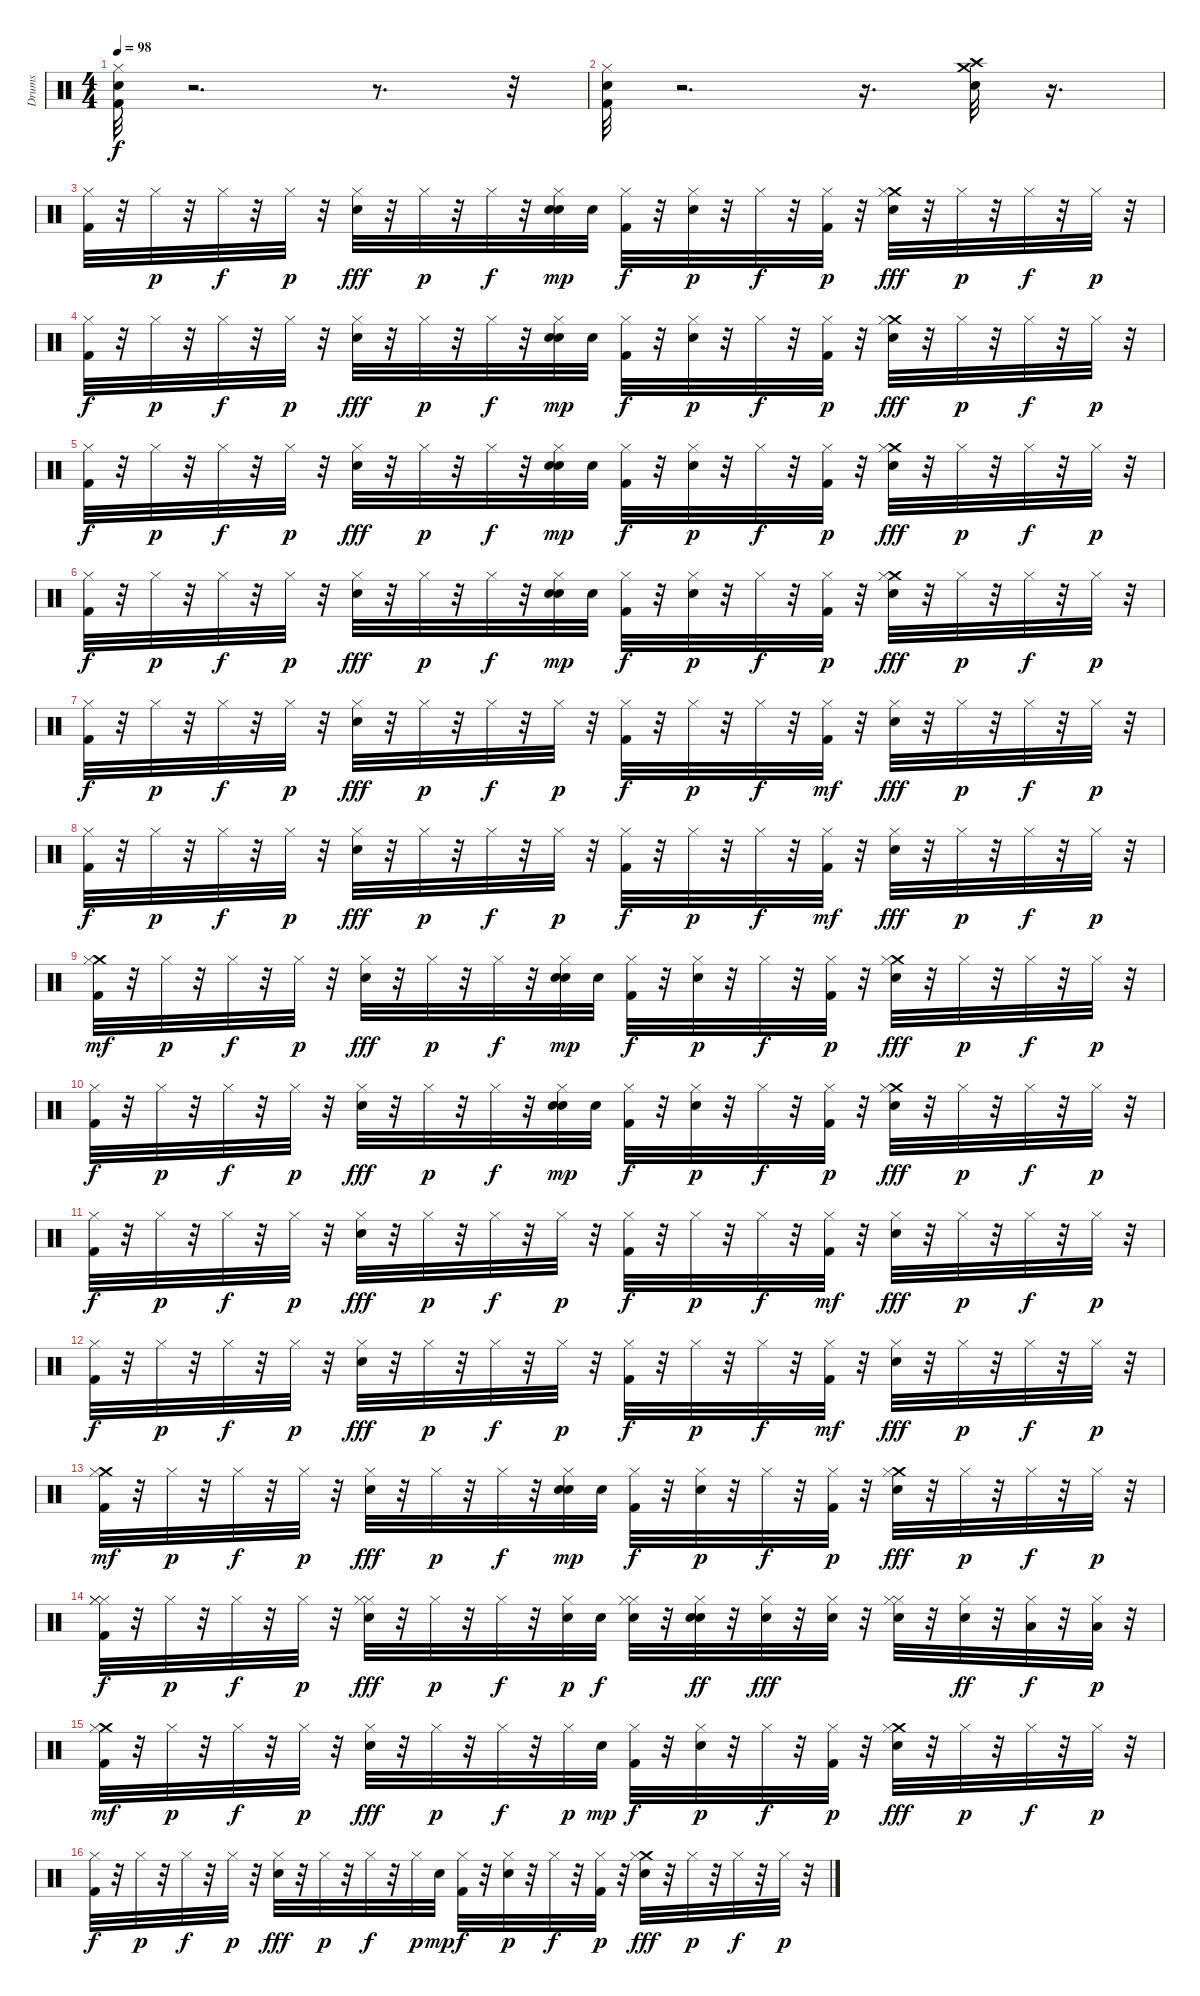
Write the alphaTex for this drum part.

\track ("Drums" "Drums") {instrument percussion}
\staff {score}
\articulation defaults
\ts (4 4)
\tempo 98
\clef neutral
\ks c
("Kick (hit) 2" "Electric Snare (hit)" "Hi-Hat (closed)").32{dy f} r.2{d} r.8{d} r.32 |
("Kick (hit) 2" "Electric Snare (hit)" "Hi-Hat (closed)").32 r.2{d} r.16{d} ("Crash medium (hit)" "Electric Snare (hit)" "Crash high (hit)").32 r.16{d} |
("Hi-Hat (closed)" "Kick (hit) 2").32 r.32 "Hi-Hat (closed)".32{dy p} r.32 "Hi-Hat (closed)".32{dy f} r.32 "Hi-Hat (closed)".32{dy p} r.32 ("Hi-Hat (closed)" "Electric Snare (hit)").32{dy fff} r.32 "Hi-Hat (closed)".32{dy p} r.32 "Hi-Hat (closed)".32{dy f} r.32 ("Hi-Hat (closed)" "Electric Snare (hit)" "Electric Snare (hit)").32{dy mp} "Electric Snare (hit)".32 ("Hi-Hat (closed)" "Kick (hit) 2").32{dy f} r.32 ("Hi-Hat (closed)" "Electric Snare (hit)").32{dy p} r.32 "Hi-Hat (closed)".32{dy f} r.32 ("Hi-Hat (closed)" "Kick (hit) 2").32{dy p} r.32 ("Crash medium (hit)" "Hi-Hat (closed)" "Electric Snare (hit)").32{dy fff} r.32 "Hi-Hat (closed)".32{dy p} r.32 "Hi-Hat (closed)".32{dy f} r.32 "Hi-Hat (closed)".32{dy p} r.32 |
("Hi-Hat (closed)" "Kick (hit) 2").32{dy f} r.32 "Hi-Hat (closed)".32{dy p} r.32 "Hi-Hat (closed)".32{dy f} r.32 "Hi-Hat (closed)".32{dy p} r.32 ("Hi-Hat (closed)" "Electric Snare (hit)").32{dy fff} r.32 "Hi-Hat (closed)".32{dy p} r.32 "Hi-Hat (closed)".32{dy f} r.32 ("Hi-Hat (closed)" "Electric Snare (hit)" "Electric Snare (hit)").32{dy mp} "Electric Snare (hit)".32 ("Hi-Hat (closed)" "Kick (hit) 2").32{dy f} r.32 ("Hi-Hat (closed)" "Electric Snare (hit)").32{dy p} r.32 "Hi-Hat (closed)".32{dy f} r.32 ("Hi-Hat (closed)" "Kick (hit) 2").32{dy p} r.32 ("Crash medium (hit)" "Hi-Hat (closed)" "Electric Snare (hit)").32{dy fff} r.32 "Hi-Hat (closed)".32{dy p} r.32 "Hi-Hat (closed)".32{dy f} r.32 "Hi-Hat (closed)".32{dy p} r.32 |
("Hi-Hat (closed)" "Kick (hit) 2").32{dy f} r.32 "Hi-Hat (closed)".32{dy p} r.32 "Hi-Hat (closed)".32{dy f} r.32 "Hi-Hat (closed)".32{dy p} r.32 ("Hi-Hat (closed)" "Electric Snare (hit)").32{dy fff} r.32 "Hi-Hat (closed)".32{dy p} r.32 "Hi-Hat (closed)".32{dy f} r.32 ("Hi-Hat (closed)" "Electric Snare (hit)" "Electric Snare (hit)").32{dy mp} "Electric Snare (hit)".32 ("Hi-Hat (closed)" "Kick (hit) 2").32{dy f} r.32 ("Hi-Hat (closed)" "Electric Snare (hit)").32{dy p} r.32 "Hi-Hat (closed)".32{dy f} r.32 ("Hi-Hat (closed)" "Kick (hit) 2").32{dy p} r.32 ("Crash medium (hit)" "Hi-Hat (closed)" "Electric Snare (hit)").32{dy fff} r.32 "Hi-Hat (closed)".32{dy p} r.32 "Hi-Hat (closed)".32{dy f} r.32 "Hi-Hat (closed)".32{dy p} r.32 |
("Hi-Hat (closed)" "Kick (hit) 2").32{dy f} r.32 "Hi-Hat (closed)".32{dy p} r.32 "Hi-Hat (closed)".32{dy f} r.32 "Hi-Hat (closed)".32{dy p} r.32 ("Hi-Hat (closed)" "Electric Snare (hit)").32{dy fff} r.32 "Hi-Hat (closed)".32{dy p} r.32 "Hi-Hat (closed)".32{dy f} r.32 ("Hi-Hat (closed)" "Electric Snare (hit)" "Electric Snare (hit)").32{dy mp} "Electric Snare (hit)".32 ("Hi-Hat (closed)" "Kick (hit) 2").32{dy f} r.32 ("Hi-Hat (closed)" "Electric Snare (hit)").32{dy p} r.32 "Hi-Hat (closed)".32{dy f} r.32 ("Hi-Hat (closed)" "Kick (hit) 2").32{dy p} r.32 ("Crash medium (hit)" "Hi-Hat (closed)" "Electric Snare (hit)").32{dy fff} r.32 "Hi-Hat (closed)".32{dy p} r.32 "Hi-Hat (closed)".32{dy f} r.32 "Hi-Hat (closed)".32{dy p} r.32 |
("Hi-Hat (closed)" "Kick (hit) 2").32{dy f} r.32 "Hi-Hat (closed)".32{dy p} r.32 "Hi-Hat (closed)".32{dy f} r.32 "Hi-Hat (closed)".32{dy p} r.32 ("Hi-Hat (closed)" "Electric Snare (hit)").32{dy fff} r.32 "Hi-Hat (closed)".32{dy p} r.32 "Hi-Hat (closed)".32{dy f} r.32 "Hi-Hat (closed)".32{dy p} r.32 ("Hi-Hat (closed)" "Kick (hit) 2").32{dy f} r.32 "Hi-Hat (closed)".32{dy p} r.32 "Hi-Hat (closed)".32{dy f} r.32 ("Hi-Hat (closed)" "Kick (hit) 2").32{dy mf} r.32 ("Hi-Hat (closed)" "Electric Snare (hit)").32{dy fff} r.32 "Hi-Hat (closed)".32{dy p} r.32 "Hi-Hat (closed)".32{dy f} r.32 "Hi-Hat (closed)".32{dy p} r.32 |
("Hi-Hat (closed)" "Kick (hit) 2").32{dy f} r.32 "Hi-Hat (closed)".32{dy p} r.32 "Hi-Hat (closed)".32{dy f} r.32 "Hi-Hat (closed)".32{dy p} r.32 ("Hi-Hat (closed)" "Electric Snare (hit)").32{dy fff} r.32 "Hi-Hat (closed)".32{dy p} r.32 "Hi-Hat (closed)".32{dy f} r.32 "Hi-Hat (closed)".32{dy p} r.32 ("Hi-Hat (closed)" "Kick (hit) 2").32{dy f} r.32 "Hi-Hat (closed)".32{dy p} r.32 "Hi-Hat (closed)".32{dy f} r.32 ("Hi-Hat (closed)" "Kick (hit) 2").32{dy mf} r.32 ("Hi-Hat (closed)" "Electric Snare (hit)").32{dy fff} r.32 "Hi-Hat (closed)".32{dy p} r.32 "Hi-Hat (closed)".32{dy f} r.32 "Hi-Hat (closed)".32{dy p} r.32 |
("Crash medium (hit)" "Hi-Hat (closed)" "Kick (hit) 2").32{dy mf} r.32 "Hi-Hat (closed)".32{dy p} r.32 "Hi-Hat (closed)".32{dy f} r.32 "Hi-Hat (closed)".32{dy p} r.32 ("Hi-Hat (closed)" "Electric Snare (hit)").32{dy fff} r.32 "Hi-Hat (closed)".32{dy p} r.32 "Hi-Hat (closed)".32{dy f} r.32 ("Hi-Hat (closed)" "Electric Snare (hit)" "Electric Snare (hit)").32{dy mp} "Electric Snare (hit)".32 ("Hi-Hat (closed)" "Kick (hit) 2").32{dy f} r.32 ("Hi-Hat (closed)" "Electric Snare (hit)").32{dy p} r.32 "Hi-Hat (closed)".32{dy f} r.32 ("Hi-Hat (closed)" "Kick (hit) 2").32{dy p} r.32 ("Crash medium (hit)" "Hi-Hat (closed)" "Electric Snare (hit)").32{dy fff} r.32 "Hi-Hat (closed)".32{dy p} r.32 "Hi-Hat (closed)".32{dy f} r.32 "Hi-Hat (closed)".32{dy p} r.32 |
("Hi-Hat (closed)" "Kick (hit) 2").32{dy f} r.32 "Hi-Hat (closed)".32{dy p} r.32 "Hi-Hat (closed)".32{dy f} r.32 "Hi-Hat (closed)".32{dy p} r.32 ("Hi-Hat (closed)" "Electric Snare (hit)").32{dy fff} r.32 "Hi-Hat (closed)".32{dy p} r.32 "Hi-Hat (closed)".32{dy f} r.32 ("Hi-Hat (closed)" "Electric Snare (hit)" "Electric Snare (hit)").32{dy mp} "Electric Snare (hit)".32 ("Hi-Hat (closed)" "Kick (hit) 2").32{dy f} r.32 ("Hi-Hat (closed)" "Electric Snare (hit)").32{dy p} r.32 "Hi-Hat (closed)".32{dy f} r.32 ("Hi-Hat (closed)" "Kick (hit) 2").32{dy p} r.32 ("Crash medium (hit)" "Hi-Hat (closed)" "Electric Snare (hit)").32{dy fff} r.32 "Hi-Hat (closed)".32{dy p} r.32 "Hi-Hat (closed)".32{dy f} r.32 "Hi-Hat (closed)".32{dy p} r.32 |
("Hi-Hat (closed)" "Kick (hit) 2").32{dy f} r.32 "Hi-Hat (closed)".32{dy p} r.32 "Hi-Hat (closed)".32{dy f} r.32 "Hi-Hat (closed)".32{dy p} r.32 ("Hi-Hat (closed)" "Electric Snare (hit)").32{dy fff} r.32 "Hi-Hat (closed)".32{dy p} r.32 "Hi-Hat (closed)".32{dy f} r.32 "Hi-Hat (closed)".32{dy p} r.32 ("Hi-Hat (closed)" "Kick (hit) 2").32{dy f} r.32 "Hi-Hat (closed)".32{dy p} r.32 "Hi-Hat (closed)".32{dy f} r.32 ("Hi-Hat (closed)" "Kick (hit) 2").32{dy mf} r.32 ("Hi-Hat (closed)" "Electric Snare (hit)").32{dy fff} r.32 "Hi-Hat (closed)".32{dy p} r.32 "Hi-Hat (closed)".32{dy f} r.32 "Hi-Hat (closed)".32{dy p} r.32 |
("Hi-Hat (closed)" "Kick (hit) 2").32{dy f} r.32 "Hi-Hat (closed)".32{dy p} r.32 "Hi-Hat (closed)".32{dy f} r.32 "Hi-Hat (closed)".32{dy p} r.32 ("Hi-Hat (closed)" "Electric Snare (hit)").32{dy fff} r.32 "Hi-Hat (closed)".32{dy p} r.32 "Hi-Hat (closed)".32{dy f} r.32 "Hi-Hat (closed)".32{dy p} r.32 ("Hi-Hat (closed)" "Kick (hit) 2").32{dy f} r.32 "Hi-Hat (closed)".32{dy p} r.32 "Hi-Hat (closed)".32{dy f} r.32 ("Hi-Hat (closed)" "Kick (hit) 2").32{dy mf} r.32 ("Hi-Hat (closed)" "Electric Snare (hit)").32{dy fff} r.32 "Hi-Hat (closed)".32{dy p} r.32 "Hi-Hat (closed)".32{dy f} r.32 "Hi-Hat (closed)".32{dy p} r.32 |
("Crash medium (hit)" "Hi-Hat (closed)" "Kick (hit) 2").32{dy mf} r.32 "Hi-Hat (closed)".32{dy p} r.32 "Hi-Hat (closed)".32{dy f} r.32 "Hi-Hat (closed)".32{dy p} r.32 ("Hi-Hat (closed)" "Electric Snare (hit)").32{dy fff} r.32 "Hi-Hat (closed)".32{dy p} r.32 "Hi-Hat (closed)".32{dy f} r.32 ("Hi-Hat (closed)" "Electric Snare (hit)" "Electric Snare (hit)").32{dy mp} "Electric Snare (hit)".32 ("Hi-Hat (closed)" "Kick (hit) 2").32{dy f} r.32 ("Hi-Hat (closed)" "Electric Snare (hit)").32{dy p} r.32 "Hi-Hat (closed)".32{dy f} r.32 ("Hi-Hat (closed)" "Kick (hit) 2").32{dy p} r.32 ("Crash medium (hit)" "Hi-Hat (closed)" "Electric Snare (hit)").32{dy fff} r.32 "Hi-Hat (closed)".32{dy p} r.32 "Hi-Hat (closed)".32{dy f} r.32 "Hi-Hat (closed)".32{dy p} r.32 |
("Hi-Hat (closed)" "Hi-Hat (closed)" "Hi-Hat (closed)" "Kick (hit) 2").32{dy f} r.32 "Hi-Hat (closed)".32{dy p} r.32 "Hi-Hat (closed)".32{dy f} r.32 "Hi-Hat (closed)".32{dy p} r.32 ("Hi-Hat (closed)" "Hi-Hat (closed)" "Electric Snare (hit)").32{dy fff} r.32 "Hi-Hat (closed)".32{dy p} r.32 "Hi-Hat (closed)".32{dy f} r.32 ("Hi-Hat (closed)" "Snare (hit) 2").32{dy p} "Snare (hit) 2".32{dy f} ("Hi-Hat (closed)" "Hi-Hat (closed)" "Electric Snare (hit)").32 r.32 ("Hi-Hat (closed)" "Electric Snare (hit)" "Electric Snare (hit)").32{dy ff} r.32 ("Hi-Hat (closed)" "Electric Snare (hit)").32{dy fff} r.32 ("Hi-Hat (closed)" "Electric Snare (hit)").32 r.32 ("Hi-Hat (closed)" "Hi-Hat (closed)" "Snare (hit) 2").32 r.32 ("Hi-Hat (closed)" "Snare (hit) 2").32{dy ff} r.32 ("Hi-Hat (closed)" "Low Tom (hit)").32{dy f} r.32 ("Hi-Hat (closed)" "Low Tom (hit)").32{dy p} r.32 |
("Crash medium (hit)" "Hi-Hat (closed)" "Kick (hit) 2").32{dy mf} r.32 "Hi-Hat (closed)".32{dy p} r.32 "Hi-Hat (closed)".32{dy f} r.32 "Hi-Hat (closed)".32{dy p} r.32 ("Hi-Hat (closed)" "Electric Snare (hit)").32{dy fff} r.32 "Hi-Hat (closed)".32{dy p} r.32 "Hi-Hat (closed)".32{dy f} r.32 "Hi-Hat (closed)".32{dy p} "Electric Snare (hit)".32{dy mp} ("Hi-Hat (closed)" "Kick (hit) 2").32{dy f} r.32 ("Hi-Hat (closed)" "Electric Snare (hit)").32{dy p} r.32 "Hi-Hat (closed)".32{dy f} r.32 ("Hi-Hat (closed)" "Kick (hit) 2").32{dy p} r.32 ("Crash medium (hit)" "Hi-Hat (closed)" "Electric Snare (hit)").32{dy fff} r.32 "Hi-Hat (closed)".32{dy p} r.32 "Hi-Hat (closed)".32{dy f} r.32 "Hi-Hat (closed)".32{dy p} r.32 |
("Hi-Hat (closed)" "Kick (hit) 2").32{dy f} r.32 "Hi-Hat (closed)".32{dy p} r.32 "Hi-Hat (closed)".32{dy f} r.32 "Hi-Hat (closed)".32{dy p} r.32 ("Hi-Hat (closed)" "Electric Snare (hit)").32{dy fff} r.32 "Hi-Hat (closed)".32{dy p} r.32 "Hi-Hat (closed)".32{dy f} r.32 "Hi-Hat (closed)".32{dy p} "Electric Snare (hit)".32{dy mp} ("Hi-Hat (closed)" "Kick (hit) 2").32{dy f} r.32 ("Hi-Hat (closed)" "Electric Snare (hit)").32{dy p} r.32 "Hi-Hat (closed)".32{dy f} r.32 ("Hi-Hat (closed)" "Kick (hit) 2").32{dy p} r.32 ("Crash medium (hit)" "Hi-Hat (closed)" "Electric Snare (hit)").32{dy fff} r.32 "Hi-Hat (closed)".32{dy p} r.32 "Hi-Hat (closed)".32{dy f} r.32 "Hi-Hat (closed)".32{dy p} r.32
